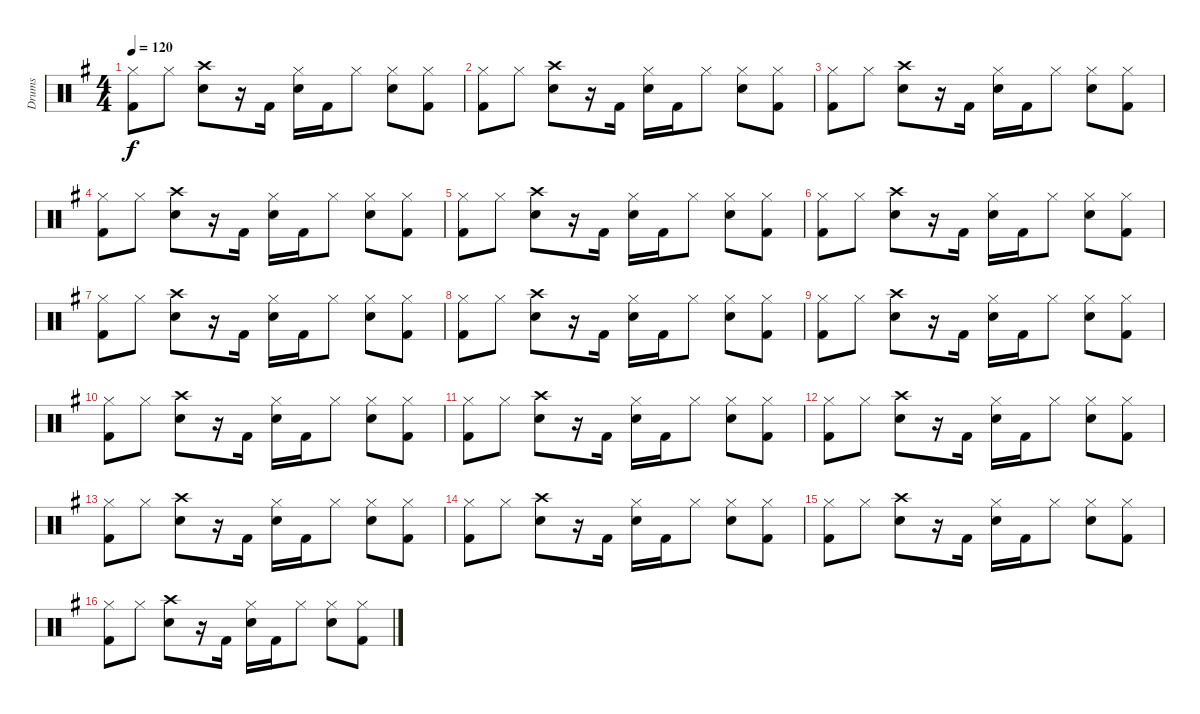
\track ("Drums" "Drums") {instrument percussion}
\staff {score}
\articulation defaults
\ts (4 4)
\tempo 120
\clef neutral
\ks g
("Hi-Hat (closed)" "Kick (hit) 2").8{dy f} "Hi-Hat (closed)".8 ("Crash high (hit)" "Electric Snare (hit)").8 r.16 "Kick (hit) 2".16 ("Hi-Hat (closed)" "Electric Snare (hit)").16 "Kick (hit) 2".16 "Hi-Hat (closed)".8 ("Hi-Hat (closed)" "Electric Snare (hit)").8 ("Hi-Hat (closed)" "Kick (hit) 2").8 |
("Hi-Hat (closed)" "Kick (hit) 2").8 "Hi-Hat (closed)".8 ("Crash high (hit)" "Electric Snare (hit)").8 r.16 "Kick (hit) 2".16 ("Hi-Hat (closed)" "Electric Snare (hit)").16 "Kick (hit) 2".16 "Hi-Hat (closed)".8 ("Hi-Hat (closed)" "Electric Snare (hit)").8 ("Hi-Hat (closed)" "Kick (hit) 2").8 |
("Hi-Hat (closed)" "Kick (hit) 2").8 "Hi-Hat (closed)".8 ("Crash high (hit)" "Electric Snare (hit)").8 r.16 "Kick (hit) 2".16 ("Hi-Hat (closed)" "Electric Snare (hit)").16 "Kick (hit) 2".16 "Hi-Hat (closed)".8 ("Hi-Hat (closed)" "Electric Snare (hit)").8 ("Hi-Hat (closed)" "Kick (hit) 2").8 |
("Hi-Hat (closed)" "Kick (hit) 2").8 "Hi-Hat (closed)".8 ("Crash high (hit)" "Electric Snare (hit)").8 r.16 "Kick (hit) 2".16 ("Hi-Hat (closed)" "Electric Snare (hit)").16 "Kick (hit) 2".16 "Hi-Hat (closed)".8 ("Hi-Hat (closed)" "Electric Snare (hit)").8 ("Hi-Hat (closed)" "Kick (hit) 2").8 |
("Hi-Hat (closed)" "Kick (hit) 2").8 "Hi-Hat (closed)".8 ("Crash high (hit)" "Electric Snare (hit)").8 r.16 "Kick (hit) 2".16 ("Hi-Hat (closed)" "Electric Snare (hit)").16 "Kick (hit) 2".16 "Hi-Hat (closed)".8 ("Hi-Hat (closed)" "Electric Snare (hit)").8 ("Hi-Hat (closed)" "Kick (hit) 2").8 |
("Hi-Hat (closed)" "Kick (hit) 2").8 "Hi-Hat (closed)".8 ("Crash high (hit)" "Electric Snare (hit)").8 r.16 "Kick (hit) 2".16 ("Hi-Hat (closed)" "Electric Snare (hit)").16 "Kick (hit) 2".16 "Hi-Hat (closed)".8 ("Hi-Hat (closed)" "Electric Snare (hit)").8 ("Hi-Hat (closed)" "Kick (hit) 2").8 |
("Hi-Hat (closed)" "Kick (hit) 2").8 "Hi-Hat (closed)".8 ("Crash high (hit)" "Electric Snare (hit)").8 r.16 "Kick (hit) 2".16 ("Hi-Hat (closed)" "Electric Snare (hit)").16 "Kick (hit) 2".16 "Hi-Hat (closed)".8 ("Hi-Hat (closed)" "Electric Snare (hit)").8 ("Hi-Hat (closed)" "Kick (hit) 2").8 |
("Hi-Hat (closed)" "Kick (hit) 2").8 "Hi-Hat (closed)".8 ("Crash high (hit)" "Electric Snare (hit)").8 r.16 "Kick (hit) 2".16 ("Hi-Hat (closed)" "Electric Snare (hit)").16 "Kick (hit) 2".16 "Hi-Hat (closed)".8 ("Hi-Hat (closed)" "Electric Snare (hit)").8 ("Hi-Hat (closed)" "Kick (hit) 2").8 |
("Hi-Hat (closed)" "Kick (hit) 2").8 "Hi-Hat (closed)".8 ("Crash high (hit)" "Electric Snare (hit)").8 r.16 "Kick (hit) 2".16 ("Hi-Hat (closed)" "Electric Snare (hit)").16 "Kick (hit) 2".16 "Hi-Hat (closed)".8 ("Hi-Hat (closed)" "Electric Snare (hit)").8 ("Hi-Hat (closed)" "Kick (hit) 2").8 |
("Hi-Hat (closed)" "Kick (hit) 2").8 "Hi-Hat (closed)".8 ("Crash high (hit)" "Electric Snare (hit)").8 r.16 "Kick (hit) 2".16 ("Hi-Hat (closed)" "Electric Snare (hit)").16 "Kick (hit) 2".16 "Hi-Hat (closed)".8 ("Hi-Hat (closed)" "Electric Snare (hit)").8 ("Hi-Hat (closed)" "Kick (hit) 2").8 |
("Hi-Hat (closed)" "Kick (hit) 2").8 "Hi-Hat (closed)".8 ("Crash high (hit)" "Electric Snare (hit)").8 r.16 "Kick (hit) 2".16 ("Hi-Hat (closed)" "Electric Snare (hit)").16 "Kick (hit) 2".16 "Hi-Hat (closed)".8 ("Hi-Hat (closed)" "Electric Snare (hit)").8 ("Hi-Hat (closed)" "Kick (hit) 2").8 |
("Hi-Hat (closed)" "Kick (hit) 2").8 "Hi-Hat (closed)".8 ("Crash high (hit)" "Electric Snare (hit)").8 r.16 "Kick (hit) 2".16 ("Hi-Hat (closed)" "Electric Snare (hit)").16 "Kick (hit) 2".16 "Hi-Hat (closed)".8 ("Hi-Hat (closed)" "Electric Snare (hit)").8 ("Hi-Hat (closed)" "Kick (hit) 2").8 |
("Hi-Hat (closed)" "Kick (hit) 2").8 "Hi-Hat (closed)".8 ("Crash high (hit)" "Electric Snare (hit)").8 r.16 "Kick (hit) 2".16 ("Hi-Hat (closed)" "Electric Snare (hit)").16 "Kick (hit) 2".16 "Hi-Hat (closed)".8 ("Hi-Hat (closed)" "Electric Snare (hit)").8 ("Hi-Hat (closed)" "Kick (hit) 2").8 |
("Hi-Hat (closed)" "Kick (hit) 2").8 "Hi-Hat (closed)".8 ("Crash high (hit)" "Electric Snare (hit)").8 r.16 "Kick (hit) 2".16 ("Hi-Hat (closed)" "Electric Snare (hit)").16 "Kick (hit) 2".16 "Hi-Hat (closed)".8 ("Hi-Hat (closed)" "Electric Snare (hit)").8 ("Hi-Hat (closed)" "Kick (hit) 2").8 |
("Hi-Hat (closed)" "Kick (hit) 2").8 "Hi-Hat (closed)".8 ("Crash high (hit)" "Electric Snare (hit)").8 r.16 "Kick (hit) 2".16 ("Hi-Hat (closed)" "Electric Snare (hit)").16 "Kick (hit) 2".16 "Hi-Hat (closed)".8 ("Hi-Hat (closed)" "Electric Snare (hit)").8 ("Hi-Hat (closed)" "Kick (hit) 2").8 |
("Hi-Hat (closed)" "Kick (hit) 2").8 "Hi-Hat (closed)".8 ("Crash high (hit)" "Electric Snare (hit)").8 r.16 "Kick (hit) 2".16 ("Hi-Hat (closed)" "Electric Snare (hit)").16 "Kick (hit) 2".16 "Hi-Hat (closed)".8 ("Hi-Hat (closed)" "Electric Snare (hit)").8 ("Hi-Hat (closed)" "Kick (hit) 2").8
